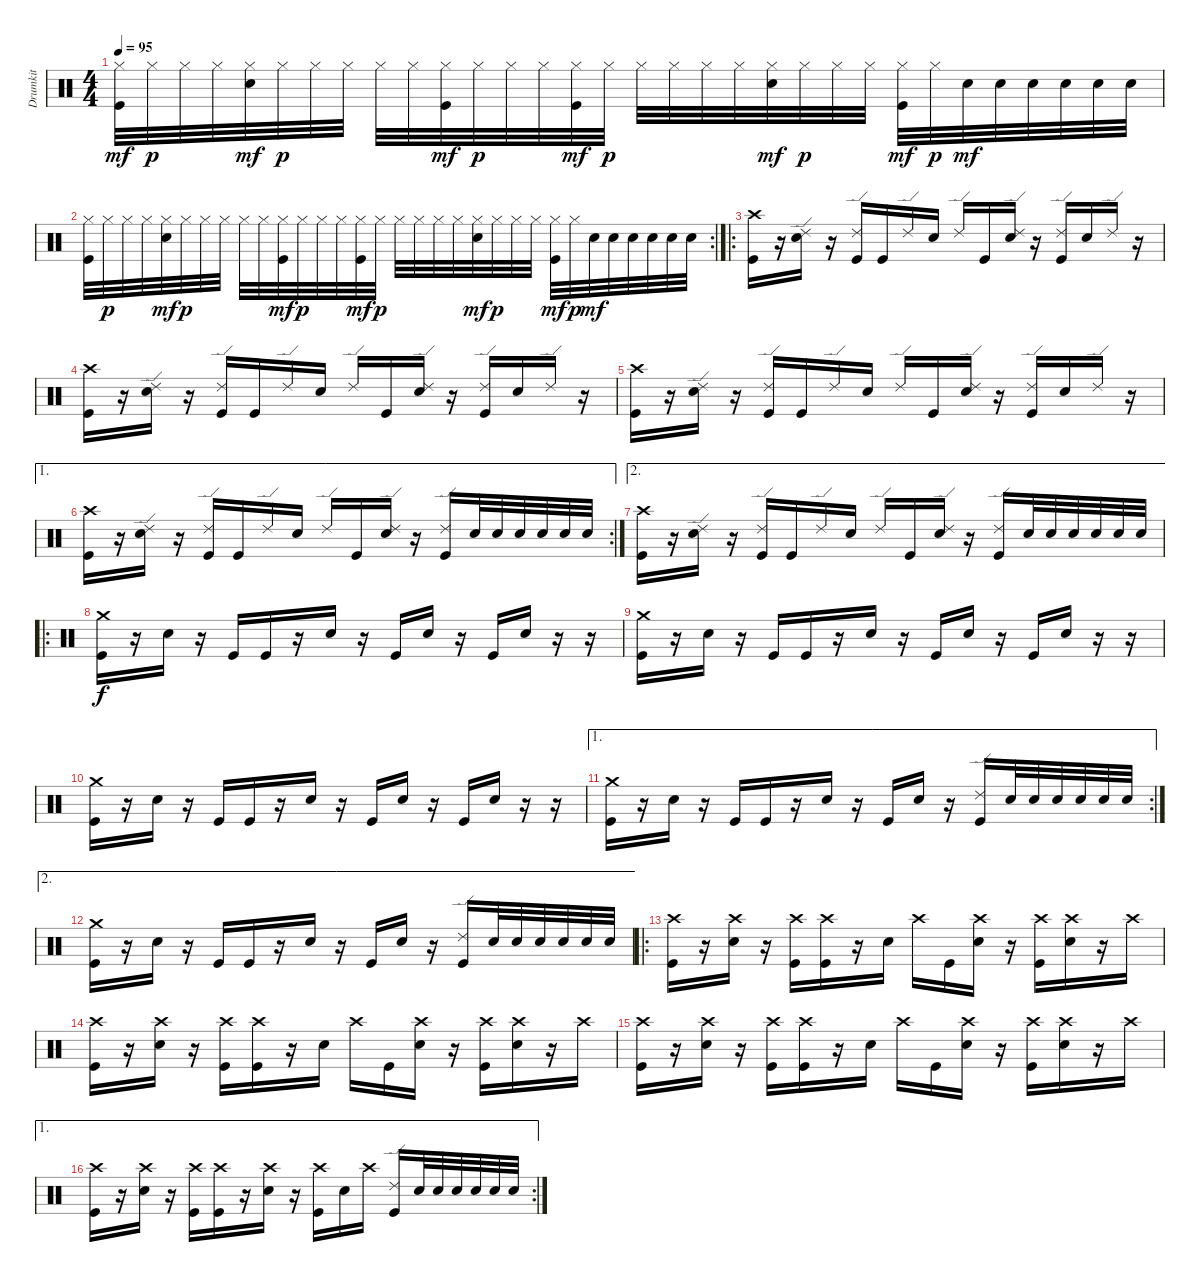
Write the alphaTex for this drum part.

\track ("Drumkit" "Drumkit") {instrument percussion}
\staff {score}
\articulation defaults
\ts (4 4)
\tempo 95
\clef neutral
\ks c
("Hi-Hat (closed)" "Kick (hit)").32{dy mf} "Hi-Hat (closed)".32{dy p} "Hi-Hat (closed)".32 "Hi-Hat (closed)".32 ("Hi-Hat (closed)" "Snare (hit) 2").32{dy mf} "Hi-Hat (closed)".32{dy p} "Hi-Hat (closed)".32 "Hi-Hat (closed)".32 "Hi-Hat (closed)".32 "Hi-Hat (closed)".32 ("Hi-Hat (closed)" "Kick (hit)").32{dy mf} "Hi-Hat (closed)".32{dy p} "Hi-Hat (closed)".32 "Hi-Hat (closed)".32 ("Hi-Hat (closed)" "Kick (hit)").32{dy mf} "Hi-Hat (closed)".32{dy p} "Hi-Hat (closed)".32 "Hi-Hat (closed)".32 "Hi-Hat (closed)".32 "Hi-Hat (closed)".32 ("Hi-Hat (closed)" "Snare (hit) 2").32{dy mf} "Hi-Hat (closed)".32{dy p} "Hi-Hat (closed)".32 "Hi-Hat (closed)".32 ("Hi-Hat (closed)" "Kick (hit)").32{dy mf} "Hi-Hat (closed)".32{dy p} "Snare (hit) 2".32{dy mf} "Snare (hit) 2".32 "Snare (hit) 2".32 "Snare (hit) 2".32 "Snare (hit) 2".32 "Snare (hit) 2".32 |
\rc 2
("Hi-Hat (closed)" "Kick (hit)").32 "Hi-Hat (closed)".32{dy p} "Hi-Hat (closed)".32 "Hi-Hat (closed)".32 ("Hi-Hat (closed)" "Snare (hit) 2").32{dy mf} "Hi-Hat (closed)".32{dy p} "Hi-Hat (closed)".32 "Hi-Hat (closed)".32 "Hi-Hat (closed)".32 "Hi-Hat (closed)".32 ("Hi-Hat (closed)" "Kick (hit)").32{dy mf} "Hi-Hat (closed)".32{dy p} "Hi-Hat (closed)".32 "Hi-Hat (closed)".32 ("Hi-Hat (closed)" "Kick (hit)").32{dy mf} "Hi-Hat (closed)".32{dy p} "Hi-Hat (closed)".32 "Hi-Hat (closed)".32 "Hi-Hat (closed)".32 "Hi-Hat (closed)".32 ("Hi-Hat (closed)" "Snare (hit) 2").32{dy mf} "Hi-Hat (closed)".32{dy p} "Hi-Hat (closed)".32 "Hi-Hat (closed)".32 ("Hi-Hat (closed)" "Kick (hit)").32{dy mf} "Hi-Hat (closed)".32{dy p} "Snare (hit) 2".32{dy mf} "Snare (hit) 2".32 "Snare (hit) 2".32 "Snare (hit) 2".32 "Snare (hit) 2".32 "Snare (hit) 2".32 |
\ro
("Kick (hit)" "Crash high (hit)").16 r.16 ("Snare (hit) 2" "Ride (edge) 2").16 r.16 ("Kick (hit)" "Ride (edge) 2").16 "Kick (hit)".16 "Ride (edge) 2".16 "Snare (hit) 2".16 "Ride (edge) 2".16 "Kick (hit)".16 ("Snare (hit) 2" "Ride (edge) 2").16 r.16 ("Kick (hit)" "Ride (edge) 2").16 "Snare (hit) 2".16 "Ride (edge) 2".16 r.16 |
("Kick (hit)" "Crash high (hit)").16 r.16 ("Snare (hit) 2" "Ride (edge) 2").16 r.16 ("Kick (hit)" "Ride (edge) 2").16 "Kick (hit)".16 "Ride (edge) 2".16 "Snare (hit) 2".16 "Ride (edge) 2".16 "Kick (hit)".16 ("Snare (hit) 2" "Ride (edge) 2").16 r.16 ("Kick (hit)" "Ride (edge) 2").16 "Snare (hit) 2".16 "Ride (edge) 2".16 r.16 |
("Kick (hit)" "Crash high (hit)").16 r.16 ("Snare (hit) 2" "Ride (edge) 2").16 r.16 ("Kick (hit)" "Ride (edge) 2").16 "Kick (hit)".16 "Ride (edge) 2".16 "Snare (hit) 2".16 "Ride (edge) 2".16 "Kick (hit)".16 ("Snare (hit) 2" "Ride (edge) 2").16 r.16 ("Kick (hit)" "Ride (edge) 2").16 "Snare (hit) 2".16 "Ride (edge) 2".16 r.16 |
\ae 1
\rc 2
("Kick (hit)" "Crash high (hit)").16 r.16 ("Snare (hit) 2" "Ride (edge) 2").16 r.16 ("Kick (hit)" "Ride (edge) 2").16 "Kick (hit)".16 "Ride (edge) 2".16 "Snare (hit) 2".16 "Ride (edge) 2".16 "Kick (hit)".16 ("Snare (hit) 2" "Ride (edge) 2").16 r.16 ("Kick (hit)" "Ride (edge) 2").16 "Snare (hit) 2".32 "Snare (hit) 2".32 "Snare (hit) 2".32 "Snare (hit) 2".32 "Snare (hit) 2".32 "Snare (hit) 2".32 |
\ae 2
("Kick (hit)" "Crash high (hit)").16 r.16 ("Snare (hit) 2" "Ride (edge) 2").16 r.16 ("Kick (hit)" "Ride (edge) 2").16 "Kick (hit)".16 "Ride (edge) 2".16 "Snare (hit) 2".16 "Ride (edge) 2".16 "Kick (hit)".16 ("Snare (hit) 2" "Ride (edge) 2").16 r.16 ("Kick (hit)" "Ride (edge) 2").16 "Snare (hit) 2".32 "Snare (hit) 2".32 "Snare (hit) 2".32 "Snare (hit) 2".32 "Snare (hit) 2".32 "Snare (hit) 2".32 |
\ro
("Kick (hit)" "Crash medium (hit)").16{dy f} r.16 "Snare (hit) 2".16 r.16 "Kick (hit)".16 "Kick (hit)".16 r.16 "Snare (hit) 2".16 r.16 "Kick (hit)".16 "Snare (hit) 2".16 r.16 "Kick (hit)".16 "Snare (hit) 2".16 r.16 r.16 |
("Kick (hit)" "Crash medium (hit)").16 r.16 "Snare (hit) 2".16 r.16 "Kick (hit)".16 "Kick (hit)".16 r.16 "Snare (hit) 2".16 r.16 "Kick (hit)".16 "Snare (hit) 2".16 r.16 "Kick (hit)".16 "Snare (hit) 2".16 r.16 r.16 |
("Kick (hit)" "Crash medium (hit)").16 r.16 "Snare (hit) 2".16 r.16 "Kick (hit)".16 "Kick (hit)".16 r.16 "Snare (hit) 2".16 r.16 "Kick (hit)".16 "Snare (hit) 2".16 r.16 "Kick (hit)".16 "Snare (hit) 2".16 r.16 r.16 |
\ae 1
\rc 2
("Kick (hit)" "Crash medium (hit)").16 r.16 "Snare (hit) 2".16 r.16 "Kick (hit)".16 "Kick (hit)".16 r.16 "Snare (hit) 2".16 r.16 "Kick (hit)".16 "Snare (hit) 2".16 r.16 ("Kick (hit)" "Ride (edge) 2").16 "Snare (hit) 2".32 "Snare (hit) 2".32 "Snare (hit) 2".32 "Snare (hit) 2".32 "Snare (hit) 2".32 "Snare (hit) 2".32 |
\ae 2
("Kick (hit)" "Crash medium (hit)").16 r.16 "Snare (hit) 2".16 r.16 "Kick (hit)".16 "Kick (hit)".16 r.16 "Snare (hit) 2".16 r.16 "Kick (hit)".16 "Snare (hit) 2".16 r.16 ("Kick (hit)" "Ride (edge) 2").16 "Snare (hit) 2".32 "Snare (hit) 2".32 "Snare (hit) 2".32 "Snare (hit) 2".32 "Snare (hit) 2".32 "Snare (hit) 2".32 |
\ro
("Kick (hit)" "Crash high (hit)").16 r.16 ("Snare (hit) 2" "Crash high (hit)").16 r.16 ("Kick (hit)" "Crash high (hit)").16 ("Kick (hit)" "Crash high (hit)").16 r.16 "Snare (hit) 2".16 "Crash high (hit)".16 "Kick (hit)".16 ("Snare (hit) 2" "Crash high (hit)").16 r.16 ("Kick (hit)" "Crash high (hit)").16 ("Snare (hit) 2" "Crash high (hit)").16 r.16 "Crash high (hit)".16 |
("Kick (hit)" "Crash high (hit)").16 r.16 ("Snare (hit) 2" "Crash high (hit)").16 r.16 ("Kick (hit)" "Crash high (hit)").16 ("Kick (hit)" "Crash high (hit)").16 r.16 "Snare (hit) 2".16 "Crash high (hit)".16 "Kick (hit)".16 ("Snare (hit) 2" "Crash high (hit)").16 r.16 ("Kick (hit)" "Crash high (hit)").16 ("Snare (hit) 2" "Crash high (hit)").16 r.16 "Crash high (hit)".16 |
("Kick (hit)" "Crash high (hit)").16 r.16 ("Snare (hit) 2" "Crash high (hit)").16 r.16 ("Kick (hit)" "Crash high (hit)").16 ("Kick (hit)" "Crash high (hit)").16 r.16 "Snare (hit) 2".16 "Crash high (hit)".16 "Kick (hit)".16 ("Snare (hit) 2" "Crash high (hit)").16 r.16 ("Kick (hit)" "Crash high (hit)").16 ("Snare (hit) 2" "Crash high (hit)").16 r.16 "Crash high (hit)".16 |
\ae 1
\rc 2
("Kick (hit)" "Crash high (hit)").16 r.16 ("Snare (hit) 2" "Crash high (hit)").16 r.16 ("Kick (hit)" "Crash high (hit)").16 ("Kick (hit)" "Crash high (hit)").16 r.16 ("Snare (hit) 2" "Crash high (hit)").16 r.16 ("Kick (hit)" "Crash high (hit)").16 "Snare (hit) 2".16 "Crash high (hit)".16 ("Kick (hit)" "Ride (edge) 2").16 "Snare (hit) 2".32 "Snare (hit) 2".32 "Snare (hit) 2".32 "Snare (hit) 2".32 "Snare (hit) 2".32 "Snare (hit) 2".32
